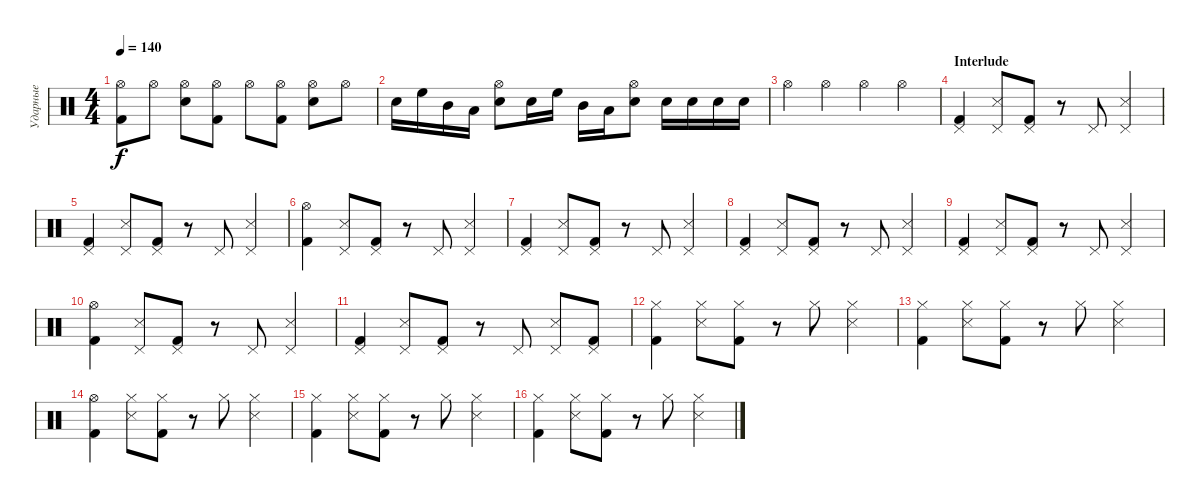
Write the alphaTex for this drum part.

\track ("Ударные" "Ударные") {instrument percussion}
\staff {score}
\articulation defaults
\ts (4 4)
\tempo 140
\clef neutral
\ks c
("Hi-Hat (open)" "Kick (hit) 2").8{dy f} "Hi-Hat (open)".8 ("Hi-Hat (open)" "Snare (hit) 2").8 ("Hi-Hat (open)" "Kick (hit) 2").8 "Hi-Hat (open)".8 ("Hi-Hat (open)" "Kick (hit) 2").8 ("Hi-Hat (open)" "Snare (hit) 2").8 "Hi-Hat (open)".8 |
"Snare (hit) 2".16 "High Floor Tom (hit)".16 "Mid Tom (hit)".16 "Low Tom (hit)".16 ("Hi-Hat (open)" "Snare (hit) 2").8 "Snare (hit) 2".16 "High Floor Tom (hit)".16 "Mid Tom (hit)".16 "Low Tom (hit)".16 ("Hi-Hat (open)" "Snare (hit) 2").8 "Snare (hit) 2".16 "Snare (hit) 2".16 "Snare (hit) 2".16 "Snare (hit) 2".16 |
"Hi-Hat (open)".4 "Hi-Hat (open)".4 "Hi-Hat (open)".4 "Hi-Hat (open)".4 |
\section ("" "Interlude")
("Pedal Hi-Hat (hit)" "Kick (hit) 2").4 ("Pedal Hi-Hat (hit)" "Snare (side stick) 3").8 ("Pedal Hi-Hat (hit)" "Kick (hit) 2").8 r.8 "Pedal Hi-Hat (hit)".8 ("Pedal Hi-Hat (hit)" "Snare (side stick) 3").4 |
("Pedal Hi-Hat (hit)" "Kick (hit) 2").4 ("Pedal Hi-Hat (hit)" "Snare (side stick) 3").8 ("Pedal Hi-Hat (hit)" "Kick (hit) 2").8 r.8 "Pedal Hi-Hat (hit)".8 ("Pedal Hi-Hat (hit)" "Snare (side stick) 3").4 |
("Hi-Hat (open)" "Kick (hit) 2").4 ("Pedal Hi-Hat (hit)" "Snare (side stick) 3").8 ("Pedal Hi-Hat (hit)" "Kick (hit) 2").8 r.8 "Pedal Hi-Hat (hit)".8 ("Pedal Hi-Hat (hit)" "Snare (side stick) 3").4 |
("Pedal Hi-Hat (hit)" "Kick (hit) 2").4 ("Pedal Hi-Hat (hit)" "Snare (side stick) 3").8 ("Pedal Hi-Hat (hit)" "Kick (hit) 2").8 r.8 "Pedal Hi-Hat (hit)".8 ("Pedal Hi-Hat (hit)" "Snare (side stick) 3").4 |
("Pedal Hi-Hat (hit)" "Kick (hit) 2").4 ("Pedal Hi-Hat (hit)" "Snare (side stick) 3").8 ("Pedal Hi-Hat (hit)" "Kick (hit) 2").8 r.8 "Pedal Hi-Hat (hit)".8 ("Pedal Hi-Hat (hit)" "Snare (side stick) 3").4 |
("Pedal Hi-Hat (hit)" "Kick (hit) 2").4 ("Pedal Hi-Hat (hit)" "Snare (side stick) 3").8 ("Pedal Hi-Hat (hit)" "Kick (hit) 2").8 r.8 "Pedal Hi-Hat (hit)".8 ("Pedal Hi-Hat (hit)" "Snare (side stick) 3").4 |
("Hi-Hat (open)" "Kick (hit) 2").4 ("Pedal Hi-Hat (hit)" "Snare (side stick) 3").8 ("Pedal Hi-Hat (hit)" "Kick (hit) 2").8 r.8 "Pedal Hi-Hat (hit)".8 ("Pedal Hi-Hat (hit)" "Snare (side stick) 3").4 |
("Pedal Hi-Hat (hit)" "Kick (hit) 2").4 ("Pedal Hi-Hat (hit)" "Snare (side stick) 3").8 ("Pedal Hi-Hat (hit)" "Kick (hit) 2").8 r.8 "Pedal Hi-Hat (hit)".8 ("Pedal Hi-Hat (hit)" "Snare (side stick) 3").8 ("Pedal Hi-Hat (hit)" "Kick (hit) 2").8 |
("Hi-Hat (closed)" "Kick (hit) 2").4 ("Hi-Hat (closed)" "Snare (side stick) 3").8 ("Hi-Hat (closed)" "Kick (hit) 2").8 r.8 "Hi-Hat (closed)".8 ("Hi-Hat (closed)" "Snare (side stick) 3").4 |
("Hi-Hat (closed)" "Kick (hit) 2").4 ("Hi-Hat (closed)" "Snare (side stick) 3").8 ("Hi-Hat (closed)" "Kick (hit) 2").8 r.8 "Hi-Hat (closed)".8 ("Hi-Hat (closed)" "Snare (side stick) 3").4 |
("Hi-Hat (open)" "Kick (hit) 2").4 ("Hi-Hat (closed)" "Snare (side stick) 3").8 ("Hi-Hat (closed)" "Kick (hit) 2").8 r.8 "Hi-Hat (closed)".8 ("Hi-Hat (closed)" "Snare (side stick) 3").4 |
("Hi-Hat (closed)" "Kick (hit) 2").4 ("Hi-Hat (closed)" "Snare (side stick) 3").8 ("Hi-Hat (closed)" "Kick (hit) 2").8 r.8 "Hi-Hat (closed)".8 ("Hi-Hat (closed)" "Snare (side stick) 3").4 |
("Hi-Hat (closed)" "Kick (hit) 2").4 ("Hi-Hat (closed)" "Snare (side stick) 3").8 ("Hi-Hat (closed)" "Kick (hit) 2").8 r.8 "Hi-Hat (closed)".8 ("Hi-Hat (closed)" "Snare (side stick) 3").4
